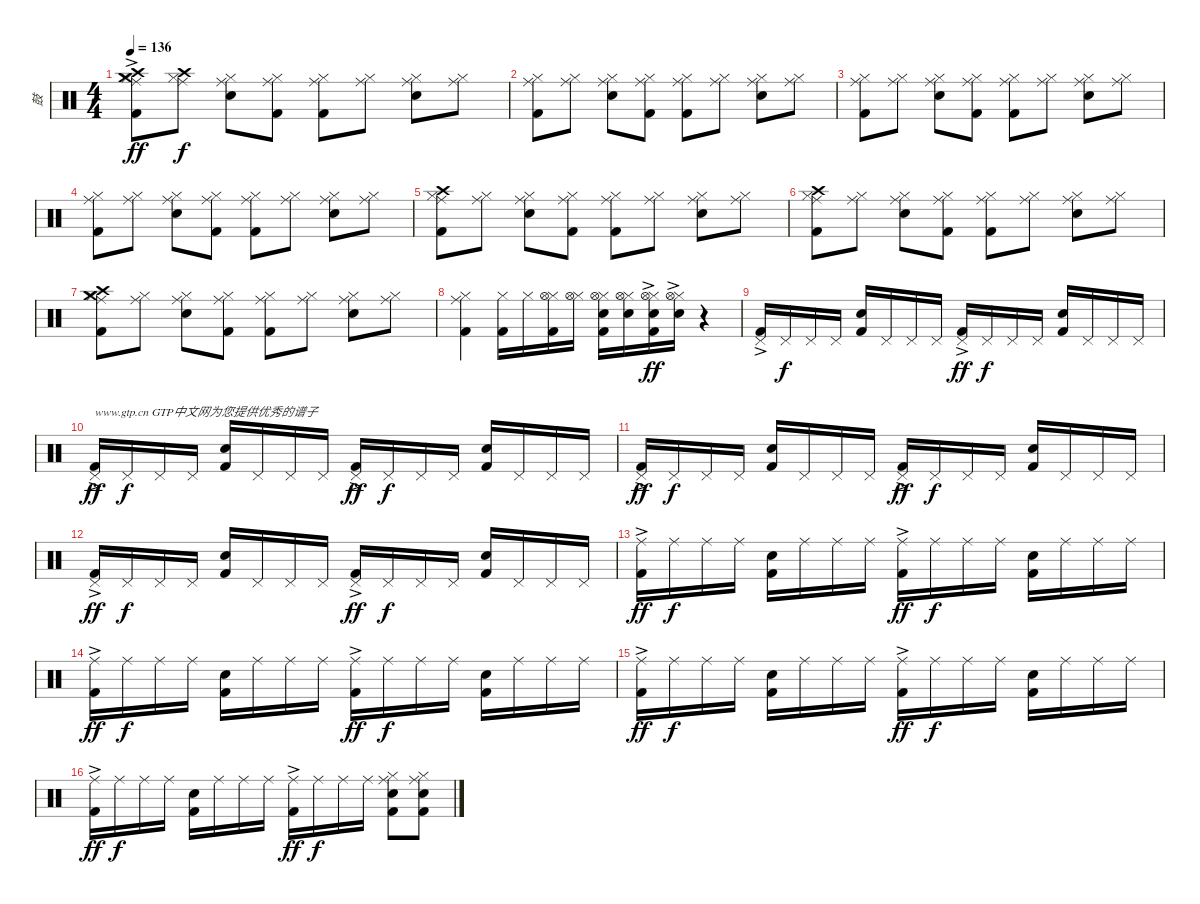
\track ("鼓" "鼓") {instrument percussion}
\staff {score}
\articulation defaults
\ts (4 4)
\tempo 136
\clef neutral
\ks c
("Ride (middle)"{ac} "Hi-Hat (closed)"{ac} "Crash high (hit)"{ac} "Crash medium (hit)"{ac} "Kick (hit) 2"{ac}).8{dy ff} ("Ride (middle)" "Hi-Hat (closed)" "Crash high (hit)").8{dy f} ("Ride (middle)" "Hi-Hat (closed)" "Electric Snare (hit)").8 ("Ride (middle)" "Hi-Hat (closed)" "Kick (hit) 2").8 ("Ride (middle)" "Hi-Hat (closed)" "Kick (hit) 2").8 ("Ride (middle)" "Hi-Hat (closed)").8 ("Ride (middle)" "Hi-Hat (closed)" "Electric Snare (hit)").8 ("Ride (middle)" "Hi-Hat (closed)").8 |
("Ride (middle)" "Hi-Hat (closed)" "Kick (hit) 2").8 ("Ride (middle)" "Hi-Hat (closed)").8 ("Ride (middle)" "Hi-Hat (closed)" "Electric Snare (hit)").8 ("Ride (middle)" "Hi-Hat (closed)" "Kick (hit) 2").8 ("Ride (middle)" "Hi-Hat (closed)" "Kick (hit) 2").8 ("Ride (middle)" "Hi-Hat (closed)").8 ("Ride (middle)" "Hi-Hat (closed)" "Electric Snare (hit)").8 ("Ride (middle)" "Hi-Hat (closed)").8 |
("Ride (middle)" "Hi-Hat (closed)" "Kick (hit) 2").8 ("Ride (middle)" "Hi-Hat (closed)").8 ("Ride (middle)" "Hi-Hat (closed)" "Electric Snare (hit)").8 ("Ride (middle)" "Hi-Hat (closed)" "Kick (hit) 2").8 ("Ride (middle)" "Hi-Hat (closed)" "Kick (hit) 2").8 ("Ride (middle)" "Hi-Hat (closed)").8 ("Ride (middle)" "Hi-Hat (closed)" "Electric Snare (hit)").8 ("Ride (middle)" "Hi-Hat (closed)").8 |
("Ride (middle)" "Hi-Hat (closed)" "Kick (hit) 2").8 ("Ride (middle)" "Hi-Hat (closed)").8 ("Ride (middle)" "Hi-Hat (closed)" "Electric Snare (hit)").8 ("Ride (middle)" "Hi-Hat (closed)" "Kick (hit) 2").8 ("Ride (middle)" "Hi-Hat (closed)" "Kick (hit) 2").8 ("Ride (middle)" "Hi-Hat (closed)").8 ("Ride (middle)" "Hi-Hat (closed)" "Electric Snare (hit)").8 ("Ride (middle)" "Hi-Hat (closed)").8 |
("Ride (middle)" "Hi-Hat (closed)" "Crash high (hit)" "Kick (hit) 2").8 ("Ride (middle)" "Hi-Hat (closed)").8 ("Ride (middle)" "Hi-Hat (closed)" "Electric Snare (hit)").8 ("Ride (middle)" "Hi-Hat (closed)" "Kick (hit) 2").8 ("Ride (middle)" "Hi-Hat (closed)" "Kick (hit) 2").8 ("Ride (middle)" "Hi-Hat (closed)").8 ("Ride (middle)" "Hi-Hat (closed)" "Electric Snare (hit)").8 ("Ride (middle)" "Hi-Hat (closed)").8 |
("Ride (middle)" "Hi-Hat (closed)" "Crash high (hit)" "Kick (hit) 2").8 ("Ride (middle)" "Hi-Hat (closed)").8 ("Ride (middle)" "Hi-Hat (closed)" "Electric Snare (hit)").8 ("Ride (middle)" "Hi-Hat (closed)" "Kick (hit) 2").8 ("Ride (middle)" "Hi-Hat (closed)" "Kick (hit) 2").8 ("Ride (middle)" "Hi-Hat (closed)").8 ("Ride (middle)" "Hi-Hat (closed)" "Electric Snare (hit)").8 ("Ride (middle)" "Hi-Hat (closed)").8 |
("Ride (middle)" "Hi-Hat (closed)" "Crash medium (hit)" "Crash high (hit)" "Kick (hit) 2").8 ("Ride (middle)" "Hi-Hat (closed)").8 ("Ride (middle)" "Hi-Hat (closed)" "Electric Snare (hit)").8 ("Ride (middle)" "Hi-Hat (closed)" "Kick (hit) 2").8 ("Ride (middle)" "Hi-Hat (closed)" "Kick (hit) 2").8 ("Ride (middle)" "Hi-Hat (closed)").8 ("Ride (middle)" "Hi-Hat (closed)" "Electric Snare (hit)").8 ("Ride (middle)" "Hi-Hat (closed)").8 |
("Ride (middle)" "Hi-Hat (closed)" "Kick (hit) 2").4 ("Hi-Hat (closed)" "Kick (hit) 2").16 "Hi-Hat (closed)".16 ("Hi-Hat (closed)" "Hi-Hat (open)" "Kick (hit) 2").16 ("Hi-Hat (closed)" "Hi-Hat (open)").16 ("Hi-Hat (closed)" "Hi-Hat (open)" "Electric Snare (hit)" "Kick (hit) 2").16 ("Hi-Hat (closed)" "Hi-Hat (open)" "Electric Snare (hit)").16 ("Hi-Hat (closed)"{ac} "Hi-Hat (open)"{ac} "Electric Snare (hit)"{ac} "Kick (hit) 2"{ac}).16{dy ff} ("Hi-Hat (closed)"{ac} "Hi-Hat (open)"{ac} "Electric Snare (hit)"{ac}).16 r.4 |
("Pedal Hi-Hat (hit)"{ac} "Kick (hit) 2"{ac}).16 "Pedal Hi-Hat (hit)".16{dy f} "Pedal Hi-Hat (hit)".16 "Pedal Hi-Hat (hit)".16 ("Electric Snare (hit)" "Kick (hit) 2").16 "Pedal Hi-Hat (hit)".16 "Pedal Hi-Hat (hit)".16 "Pedal Hi-Hat (hit)".16 ("Pedal Hi-Hat (hit)"{ac} "Kick (hit) 2"{ac}).16{dy ff} "Pedal Hi-Hat (hit)".16{dy f} "Pedal Hi-Hat (hit)".16 "Pedal Hi-Hat (hit)".16 ("Electric Snare (hit)" "Kick (hit) 2").16 "Pedal Hi-Hat (hit)".16 "Pedal Hi-Hat (hit)".16 "Pedal Hi-Hat (hit)".16 |
("Pedal Hi-Hat (hit)"{ac} "Kick (hit) 2"{ac}).16{txt "www.gtp.cn GTP中文网为您提供优秀的谱子" dy ff} "Pedal Hi-Hat (hit)".16{dy f} "Pedal Hi-Hat (hit)".16 "Pedal Hi-Hat (hit)".16 ("Electric Snare (hit)" "Kick (hit) 2").16 "Pedal Hi-Hat (hit)".16 "Pedal Hi-Hat (hit)".16 "Pedal Hi-Hat (hit)".16 ("Pedal Hi-Hat (hit)"{ac} "Kick (hit) 2"{ac}).16{dy ff} "Pedal Hi-Hat (hit)".16{dy f} "Pedal Hi-Hat (hit)".16 "Pedal Hi-Hat (hit)".16 ("Electric Snare (hit)" "Kick (hit) 2").16 "Pedal Hi-Hat (hit)".16 "Pedal Hi-Hat (hit)".16 "Pedal Hi-Hat (hit)".16 |
("Pedal Hi-Hat (hit)"{ac} "Kick (hit) 2"{ac}).16{dy ff} "Pedal Hi-Hat (hit)".16{dy f} "Pedal Hi-Hat (hit)".16 "Pedal Hi-Hat (hit)".16 ("Electric Snare (hit)" "Kick (hit) 2").16 "Pedal Hi-Hat (hit)".16 "Pedal Hi-Hat (hit)".16 "Pedal Hi-Hat (hit)".16 ("Pedal Hi-Hat (hit)"{ac} "Kick (hit) 2"{ac}).16{dy ff} "Pedal Hi-Hat (hit)".16{dy f} "Pedal Hi-Hat (hit)".16 "Pedal Hi-Hat (hit)".16 ("Electric Snare (hit)" "Kick (hit) 2").16 "Pedal Hi-Hat (hit)".16 "Pedal Hi-Hat (hit)".16 "Pedal Hi-Hat (hit)".16 |
("Pedal Hi-Hat (hit)"{ac} "Kick (hit) 2"{ac}).16{dy ff} "Pedal Hi-Hat (hit)".16{dy f} "Pedal Hi-Hat (hit)".16 "Pedal Hi-Hat (hit)".16 ("Electric Snare (hit)" "Kick (hit) 2").16 "Pedal Hi-Hat (hit)".16 "Pedal Hi-Hat (hit)".16 "Pedal Hi-Hat (hit)".16 ("Pedal Hi-Hat (hit)"{ac} "Kick (hit) 2"{ac}).16{dy ff} "Pedal Hi-Hat (hit)".16{dy f} "Pedal Hi-Hat (hit)".16 "Pedal Hi-Hat (hit)".16 ("Electric Snare (hit)" "Kick (hit) 2").16 "Pedal Hi-Hat (hit)".16 "Pedal Hi-Hat (hit)".16 "Pedal Hi-Hat (hit)".16 |
("Ride (middle)"{ac} "Kick (hit) 2"{ac}).16{dy ff} "Ride (middle)".16{dy f} "Ride (middle)".16 "Ride (middle)".16 ("Electric Snare (hit)" "Kick (hit) 2").16 "Ride (middle)".16 "Ride (middle)".16 "Ride (middle)".16 ("Ride (middle)"{ac} "Kick (hit) 2"{ac}).16{dy ff} "Ride (middle)".16{dy f} "Ride (middle)".16 "Ride (middle)".16 ("Electric Snare (hit)" "Kick (hit) 2").16 "Ride (middle)".16 "Ride (middle)".16 "Ride (middle)".16 |
("Ride (middle)"{ac} "Kick (hit) 2"{ac}).16{dy ff} "Ride (middle)".16{dy f} "Ride (middle)".16 "Ride (middle)".16 ("Electric Snare (hit)" "Kick (hit) 2").16 "Ride (middle)".16 "Ride (middle)".16 "Ride (middle)".16 ("Ride (middle)"{ac} "Kick (hit) 2"{ac}).16{dy ff} "Ride (middle)".16{dy f} "Ride (middle)".16 "Ride (middle)".16 ("Electric Snare (hit)" "Kick (hit) 2").16 "Ride (middle)".16 "Ride (middle)".16 "Ride (middle)".16 |
("Ride (middle)"{ac} "Kick (hit) 2"{ac}).16{dy ff} "Ride (middle)".16{dy f} "Ride (middle)".16 "Ride (middle)".16 ("Electric Snare (hit)" "Kick (hit) 2").16 "Ride (middle)".16 "Ride (middle)".16 "Ride (middle)".16 ("Ride (middle)"{ac} "Kick (hit) 2"{ac}).16{dy ff} "Ride (middle)".16{dy f} "Ride (middle)".16 "Ride (middle)".16 ("Electric Snare (hit)" "Kick (hit) 2").16 "Ride (middle)".16 "Ride (middle)".16 "Ride (middle)".16 |
("Ride (middle)"{ac} "Kick (hit) 2"{ac}).16{dy ff} "Ride (middle)".16{dy f} "Ride (middle)".16 "Ride (middle)".16 ("Electric Snare (hit)" "Kick (hit) 2").16 "Ride (middle)".16 "Ride (middle)".16 "Ride (middle)".16 ("Ride (middle)"{ac} "Kick (hit) 2"{ac}).16{dy ff} "Ride (middle)".16{dy f} "Ride (middle)".16 "Ride (middle)".16 ("Ride (middle)" "Electric Snare (hit)" "Hi-Hat (closed)" "Kick (hit) 2").8 ("Ride (middle)" "Electric Snare (hit)" "Hi-Hat (closed)" "Kick (hit) 2").8
